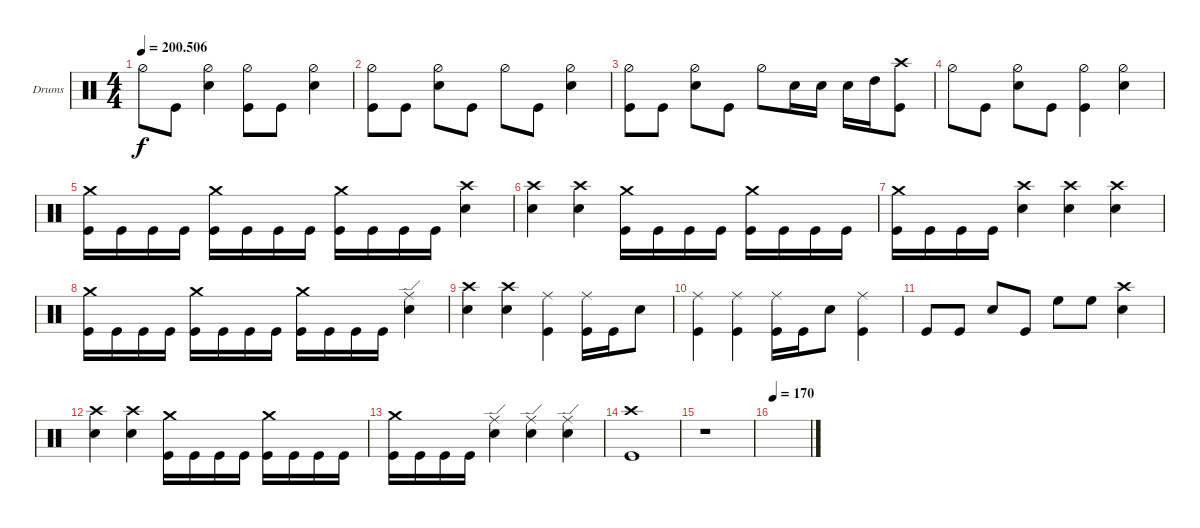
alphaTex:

\bracketExtendMode groupsimilarinstruments
\firstSystemTrackNameOrientation horizontal
\otherSystemsTrackNameOrientation horizontal
\track ("Emile Bardou" "Drums") {instrument percussion}
\staff {score}
\articulation defaults
\ts (4 4)
\tempo
200.506
\accidentals auto
\clef neutral
\ottava regular
\simile none
\ks c "Hi-Hat (half)".8{dy f} "Kick (hit)".8
("Snare (hit) 2" "Hi-Hat (half)").4 ("Kick (hit)" "Hi-Hat (half)").8 "Kick (hit)".8 ("Snare (hit) 2" "Hi-Hat (half)").4 |
("Kick (hit)" "Hi-Hat (half)").8 "Kick (hit)".8 ("Snare (hit) 2" "Hi-Hat (half)").8 "Kick (hit)".8 "Hi-Hat (half)".8 "Kick (hit)".8 ("Snare (hit) 2" "Hi-Hat (half)").4 |
("Kick (hit)" "Hi-Hat (half)").8 "Kick (hit)".8 ("Snare (hit) 2" "Hi-Hat (half)").8 "Kick (hit)".8 "Hi-Hat (half)".8 "Snare (hit) 2".16 "Snare (hit) 2".16 "Snare (hit) 2".16 "High Tom (hit)".16 ("Kick (hit)" "Crash high (hit)").8 |
"Hi-Hat (half)".8 "Kick (hit)".8 ("Snare (hit) 2" "Hi-Hat (half)").8 "Kick (hit)".8 ("Kick (hit)" "Hi-Hat (half)").4 ("Snare (hit) 2" "Hi-Hat (half)").4 |
("Crash medium (hit)" "Kick (hit)").16 "Kick (hit)".16 "Kick (hit)".16 "Kick (hit)".16 ("Crash medium (hit)" "Kick (hit)").16 "Kick (hit)".16 "Kick (hit)".16 "Kick (hit)".16 ("Crash medium (hit)" "Kick (hit)").16 "Kick (hit)".16 "Kick (hit)".16 "Kick (hit)".16 ("Crash high (hit)" "Snare (hit) 2").4 |
("Crash high (hit)" "Snare (hit) 2").4 ("Crash high (hit)" "Snare (hit) 2").4 ("Crash medium (hit)" "Kick (hit)").16 "Kick (hit)".16 "Kick (hit)".16 "Kick (hit)".16 ("Crash medium (hit)" "Kick (hit)").16 "Kick (hit)".16 "Kick (hit)".16 "Kick (hit)".16 |
("Crash medium (hit)" "Kick (hit)").16 "Kick (hit)".16 "Kick (hit)".16 "Kick (hit)".16 ("Snare (hit) 2" "Crash high (hit)").4 ("Crash high (hit)" "Snare (hit) 2").4 ("Snare (hit) 2" "Crash high (hit)").4 |
("Crash medium (hit)" "Kick (hit)").16 "Kick (hit)".16 "Kick (hit)".16 "Kick (hit)".16 ("Crash medium (hit)" "Kick (hit)").16 "Kick (hit)".16 "Kick (hit)".16 "Kick (hit)".16 ("Crash medium (hit)" "Kick (hit)").16 "Kick (hit)".16 "Kick (hit)".16 "Kick (hit)".16 ("Ride (edge)" "Snare (hit) 2").4 |
("Snare (hit) 2" "Crash high (hit)").4 ("Snare (hit) 2" "Crash high (hit)").4 ("Kick (hit)" "Ride (middle)").4 ("Kick (hit)" "Ride (middle)").16 "Kick (hit)".16 "Snare (hit) 2".8 |
("Kick (hit)" "Ride (middle)").4 ("Ride (middle)" "Kick (hit)").4 ("Kick (hit)" "Ride (middle)").16 "Kick (hit)".16 "Snare (hit) 2".8 ("Kick (hit)" "Ride (middle)").4 |
"Kick (hit)".8 "Kick (hit)".8 "Snare (hit) 2".8 "Kick (hit)".8 "High Floor Tom (hit)".8 "High Floor Tom (hit)".8 ("Snare (hit) 2" "Crash high (hit)").4 |
("Crash high (hit)" "Snare (hit) 2").4 ("Crash high (hit)" "Snare (hit) 2").4 ("Crash medium (hit)" "Kick (hit)").16 "Kick (hit)".16 "Kick (hit)".16 "Kick (hit)".16 ("Crash medium (hit)" "Kick (hit)").16 "Kick (hit)".16 "Kick (hit)".16 "Kick (hit)".16 |
("Crash medium (hit)" "Kick (hit)").16 "Kick (hit)".16 "Kick (hit)".16 "Kick (hit)".16 ("Ride (edge)" "Snare (hit) 2").4 ("Ride (edge)" "Snare (hit) 2").4 ("Ride (edge)" "Snare (hit) 2").4 |
("Kick (hit)" "Crash high (hit)").1 |
r.1 |
\tempo 170
